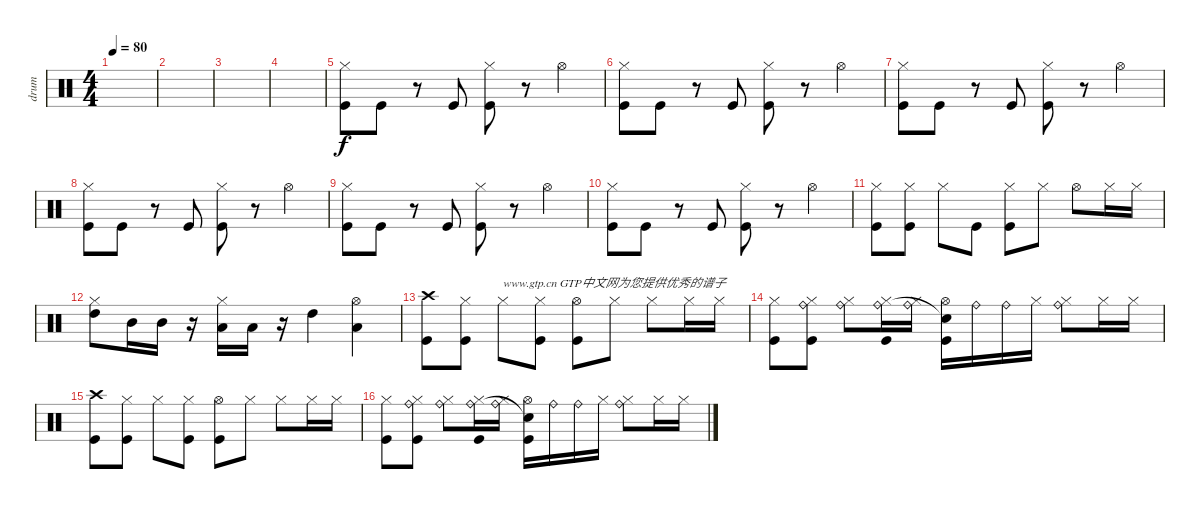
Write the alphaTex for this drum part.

\track ("drum" "drum") {instrument percussion}
\staff {score}
\articulation defaults
\ts (4 4)
\tempo 80
\clef neutral
\ks c
|
|
|
|
("Hi-Hat (closed)" "Kick (hit)").8 "Kick (hit)".8 r.8 "Kick (hit)".8 ("Hi-Hat (closed)" "Kick (hit)").8 r.8 "Hi-Hat (open)".4 |
("Hi-Hat (closed)" "Kick (hit)").8 "Kick (hit)".8 r.8 "Kick (hit)".8 ("Hi-Hat (closed)" "Kick (hit)").8 r.8 "Hi-Hat (open)".4 |
("Hi-Hat (closed)" "Kick (hit)").8 "Kick (hit)".8 r.8 "Kick (hit)".8 ("Hi-Hat (closed)" "Kick (hit)").8 r.8 "Hi-Hat (open)".4 |
("Hi-Hat (closed)" "Kick (hit)").8 "Kick (hit)".8 r.8 "Kick (hit)".8 ("Hi-Hat (closed)" "Kick (hit)").8 r.8 "Hi-Hat (open)".4 |
("Hi-Hat (closed)" "Kick (hit)").8 "Kick (hit)".8 r.8 "Kick (hit)".8 ("Hi-Hat (closed)" "Kick (hit)").8 r.8 "Hi-Hat (open)".4 |
("Hi-Hat (closed)" "Kick (hit)").8 "Kick (hit)".8 r.8 "Kick (hit)".8 ("Hi-Hat (closed)" "Kick (hit)").8 r.8 "Hi-Hat (open)".4 |
("Hi-Hat (closed)" "Kick (hit)").8 ("Hi-Hat (closed)" "Kick (hit)").8 "Hi-Hat (closed)".8 "Kick (hit)".8 ("Hi-Hat (closed)" "Kick (hit)").8 "Hi-Hat (closed)".8 "Hi-Hat (open)".8 "Hi-Hat (closed)".16 "Hi-Hat (closed)".16 |
("Hi-Hat (closed)" "High Tom (hit)").8 "Mid Tom (hit)".16 "Mid Tom (hit)".16 r.16 ("Hi-Hat (closed)" "Low Tom (hit)").16 "Low Tom (hit)".16 r.16 "High Tom (hit)".4 ("Hi-Hat (open)" "Low Tom (hit)").4 |
("Crash high (hit)" "Kick (hit)").8 ("Hi-Hat (closed)" "Kick (hit)").8 "Hi-Hat (closed)".8{txt "www.gtp.cn GTP中文网为您提供优秀的谱子"} ("Hi-Hat (closed)" "Kick (hit)").8 ("Hi-Hat (open)" "Kick (hit)").8 "Hi-Hat (closed)".8 "Hi-Hat (closed)".8 "Hi-Hat (closed)".16 "Hi-Hat (closed)".16 |
("Hi-Hat (closed)" "Kick (hit)").8 ("Hi-Hat (closed)" "Kick (hit)" "Ride (bell)").8 ("Hi-Hat (closed)" "Ride (bell)").8 ("Hi-Hat (closed)" "Kick (hit)" "Ride (bell)").16 ("Hi-Hat (closed)" "Ride (bell)").16 ("Hi-Hat (open)" "Kick (hit)" "Snare (hit)"{t}).16 "Ride (bell)".16 "Ride (bell)".16 "Hi-Hat (closed)".16 ("Hi-Hat (closed)" "Ride (bell)").8 "Hi-Hat (closed)".16 "Hi-Hat (closed)".16 |
("Crash high (hit)" "Kick (hit)").8 ("Hi-Hat (closed)" "Kick (hit)").8 "Hi-Hat (closed)".8 ("Hi-Hat (closed)" "Kick (hit)").8 ("Hi-Hat (open)" "Kick (hit)").8 "Hi-Hat (closed)".8 "Hi-Hat (closed)".8 "Hi-Hat (closed)".16 "Hi-Hat (closed)".16 |
("Hi-Hat (closed)" "Kick (hit)").8 ("Hi-Hat (closed)" "Kick (hit)" "Ride (bell)").8 ("Hi-Hat (closed)" "Ride (bell)").8 ("Hi-Hat (closed)" "Kick (hit)" "Ride (bell)").16 ("Hi-Hat (closed)" "Ride (bell)").16 ("Hi-Hat (open)" "Kick (hit)" "Snare (hit)"{t}).16 "Ride (bell)".16 "Ride (bell)".16 "Hi-Hat (closed)".16 ("Hi-Hat (closed)" "Ride (bell)").8 "Hi-Hat (closed)".16 "Hi-Hat (closed)".16
